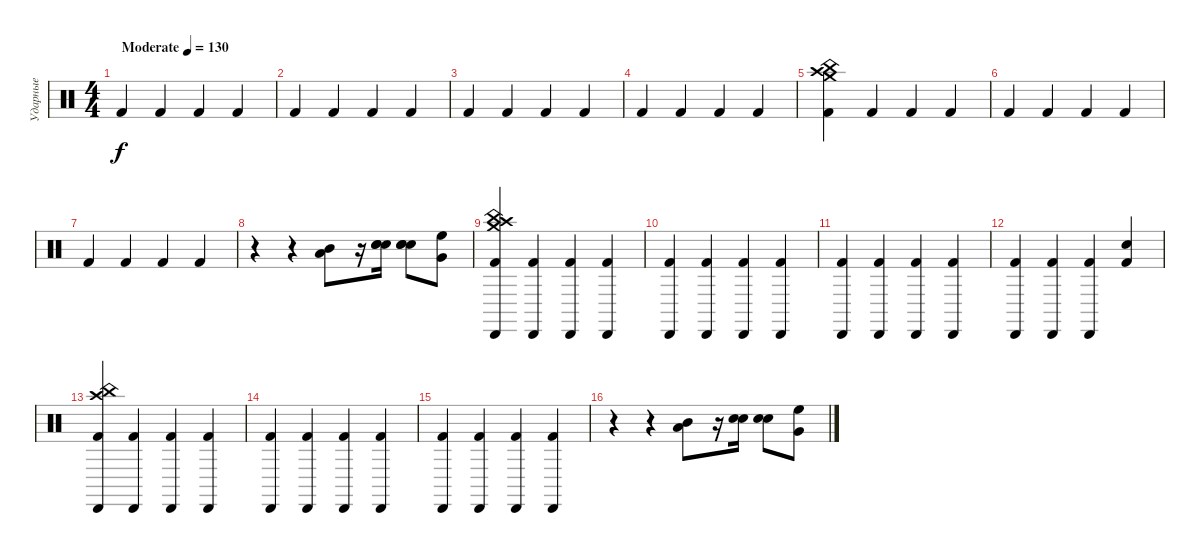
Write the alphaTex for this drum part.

\track ("Ударные" "Ударные") {solo instrument percussion}
\staff {score}
\articulation defaults
\ts (4 4)
\tempo (130 "Moderate")
\clef neutral
\ks c "Kick (hit) 2".4{dy f} "Kick (hit) 2".4 "Kick (hit) 2".4 "Kick (hit) 2".4
|
"Kick (hit) 2".4 "Kick (hit) 2".4 "Kick (hit) 2".4 "Kick (hit) 2".4 |
"Kick (hit) 2".4 "Kick (hit) 2".4 "Kick (hit) 2".4 "Kick (hit) 2".4 |
"Kick (hit) 2".4 "Kick (hit) 2".4 "Kick (hit) 2".4 "Kick (hit) 2".4 |
("Kick (hit) 2" "Crash high (hit)" "Crash medium (hit)" "China (hit)").4 "Kick (hit) 2".4 "Kick (hit) 2".4 "Kick (hit) 2".4 |
"Kick (hit) 2".4 "Kick (hit) 2".4 "Kick (hit) 2".4 "Kick (hit) 2".4 |
"Kick (hit) 2".4 "Kick (hit) 2".4 "Kick (hit) 2".4 "Kick (hit) 2".4 |
r.4 r.4 ("Mid Tom (hit)" "Low Floor Tom (hit)").8 r.16 ("Hand Clap (hit)" "Electric Snare (hit)" "Snare (hit) 2").16 ("Hand Clap (hit)" "Electric Snare (hit)" "Snare (hit) 2").8 ("Very Low Tom (hit)" "High Floor Tom (hit)").8 |
("Kick (hit) 2" "Crash medium (hit)" "China (hit)" "Crash high (hit)" "Cabasa (hit)").4 ("Kick (hit) 2" "Cabasa (hit)").4 ("Kick (hit) 2" "Cabasa (hit)").4 ("Kick (hit) 2" "Cabasa (hit)").4 |
("Kick (hit) 2" "Cabasa (hit)").4 ("Kick (hit) 2" "Cabasa (hit)").4 ("Kick (hit) 2" "Cabasa (hit)").4 ("Kick (hit) 2" "Cabasa (hit)").4 |
("Kick (hit) 2" "Cabasa (hit)").4 ("Kick (hit) 2" "Cabasa (hit)").4 ("Kick (hit) 2" "Cabasa (hit)").4 ("Kick (hit) 2" "Cabasa (hit)").4 |
("Kick (hit) 2" "Cabasa (hit)").4 ("Kick (hit) 2" "Cabasa (hit)").4 ("Kick (hit) 2" "Cabasa (hit)").4 ("Kick (hit) 2" "Snare (hit)").4 |
("Kick (hit) 2" "Crash high (hit)" "China (hit)" "Cabasa (hit)").4 ("Kick (hit) 2" "Cabasa (hit)").4 ("Kick (hit) 2" "Cabasa (hit)").4 ("Kick (hit) 2" "Cabasa (hit)").4 |
("Kick (hit) 2" "Cabasa (hit)").4 ("Kick (hit) 2" "Cabasa (hit)").4 ("Kick (hit) 2" "Cabasa (hit)").4 ("Kick (hit) 2" "Cabasa (hit)").4 |
("Kick (hit) 2" "Cabasa (hit)").4 ("Kick (hit) 2" "Cabasa (hit)").4 ("Kick (hit) 2" "Cabasa (hit)").4 ("Kick (hit) 2" "Cabasa (hit)").4 |
r.4 r.4 ("Mid Tom (hit)" "Low Floor Tom (hit)").8 r.16 ("Hand Clap (hit)" "Electric Snare (hit)").16 ("Hand Clap (hit)" "Electric Snare (hit)").8 ("Very Low Tom (hit)" "High Floor Tom (hit)").8
